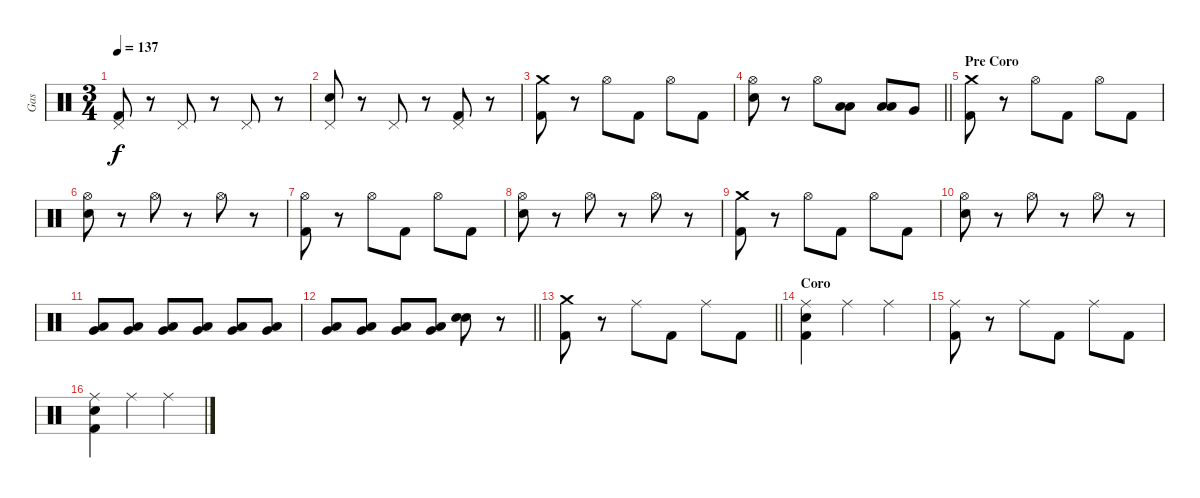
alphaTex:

\track ("Gas" "Gas") {instrument percussion}
\staff {score}
\articulation defaults
\ts (3 4)
\tempo 137
\clef neutral
\ks c
("Pedal Hi-Hat (hit)" "Kick (hit) 2").8{dy f} r.8 "Pedal Hi-Hat (hit)".8 r.8 "Pedal Hi-Hat (hit)".8 r.8 |
("Pedal Hi-Hat (hit)" "Snare (hit) 2").8 r.8 "Pedal Hi-Hat (hit)".8 r.8 ("Pedal Hi-Hat (hit)" "Kick (hit) 2").8 r.8 |
("Crash medium (hit)" "Kick (hit) 2").8 r.8 "Hi-Hat (open)".8 "Kick (hit) 2".8 "Hi-Hat (open)".8 "Kick (hit) 2".8 |
\barLineRight lightlight
("Hi-Hat (open)" "Snare (hit) 2").8 r.8 "Hi-Hat (open)".8 ("Low Tom (hit)" "Low Tom (hit)").8{bd 60} ("Low Tom (hit)" "Low Tom (hit)").8{bd 60} "Very Low Tom (hit)".8 |
\section ("" "Pre Coro")
("Crash medium (hit)" "Kick (hit) 2").8 r.8 "Hi-Hat (open)".8 "Kick (hit) 2".8 "Hi-Hat (open)".8 "Kick (hit) 2".8 |
("Hi-Hat (open)" "Snare (hit) 2").8 r.8 "Hi-Hat (open)".8 r.8 "Hi-Hat (open)".8 r.8 |
("Hi-Hat (open)" "Kick (hit) 2").8 r.8 "Hi-Hat (open)".8 "Kick (hit) 2".8 "Hi-Hat (open)".8 "Kick (hit) 2".8 |
("Hi-Hat (open)" "Snare (hit) 2").8 r.8 "Hi-Hat (open)".8 r.8 "Hi-Hat (open)".8 r.8 |
("Crash medium (hit)" "Kick (hit) 2").8 r.8 "Hi-Hat (open)".8 "Kick (hit) 2".8 "Hi-Hat (open)".8 "Kick (hit) 2".8 |
("Hi-Hat (open)" "Snare (hit) 2").8 r.8 "Hi-Hat (open)".8 r.8 "Hi-Hat (open)".8 r.8 |
("Very Low Tom (hit)" "Low Tom (hit)").8 ("Very Low Tom (hit)" "Low Tom (hit)").8 ("Very Low Tom (hit)" "Low Tom (hit)").8 ("Very Low Tom (hit)" "Low Tom (hit)").8 ("Very Low Tom (hit)" "Low Tom (hit)").8 ("Very Low Tom (hit)" "Low Tom (hit)").8 |
\barLineRight lightlight
("Very Low Tom (hit)" "Low Tom (hit)").8 ("Very Low Tom (hit)" "Low Tom (hit)").8 ("Very Low Tom (hit)" "Low Tom (hit)").8 ("Very Low Tom (hit)" "Low Tom (hit)").8 ("Snare (hit) 2" "Snare (hit) 2").8 r.8 |
\section ("" "")
\barLineRight lightlight
("Crash medium (hit)" "Kick (hit) 2").8 r.8 "Ride (middle)".8 "Kick (hit) 2".8 "Ride (middle)".8 "Kick (hit) 2".8 |
\section ("" "Coro")
("Ride (middle)" "Snare (hit) 2" "Kick (hit) 2").4 "Ride (middle)".4 "Ride (middle)".4 |
("Ride (middle)" "Kick (hit) 2").8 r.8 "Ride (middle)".8 "Kick (hit) 2".8 "Ride (middle)".8 "Kick (hit) 2".8 |
("Ride (middle)" "Snare (hit) 2" "Kick (hit) 2").4 "Ride (middle)".4 "Ride (middle)".4
